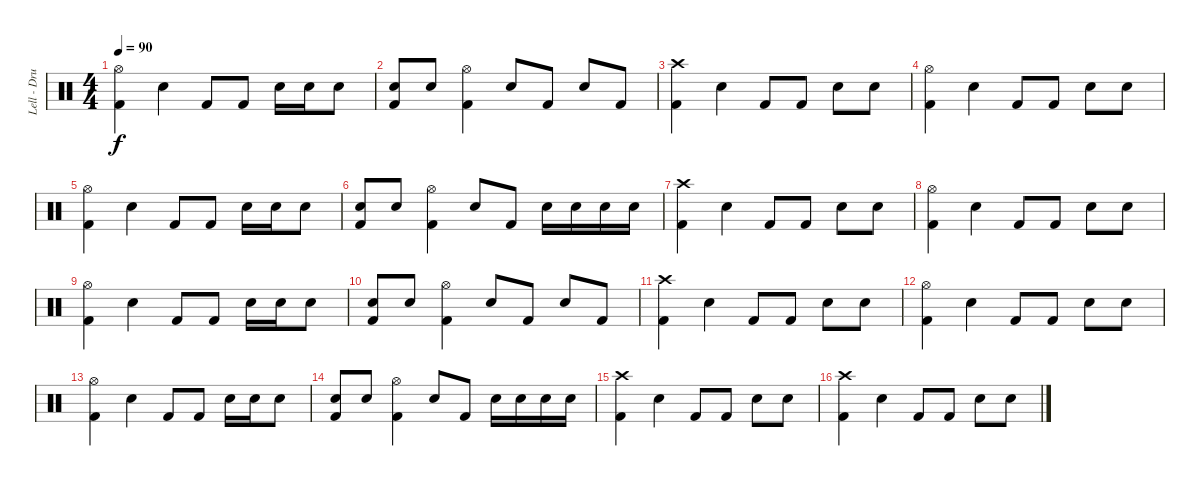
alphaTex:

\track ("Lell - Drums" "Lell - Dru") {instrument percussion}
\staff {score}
\articulation defaults
\ts (4 4)
\tempo 90
\clef neutral
\ks c
("Hi-Hat (open)" "Kick (hit) 2").4{dy f} "Snare (hit) 2".4 "Kick (hit) 2".8 "Kick (hit) 2".8 "Snare (hit) 2".16 "Snare (hit) 2".16 "Snare (hit) 2".8 |
("Snare (hit) 2" "Kick (hit) 2").8 "Snare (hit) 2".8 ("Hi-Hat (open)" "Kick (hit) 2").4 "Snare (hit) 2".8 "Kick (hit) 2".8 "Snare (hit) 2".8 "Kick (hit) 2".8 |
("Crash high (hit)" "Kick (hit) 2").4 "Snare (hit) 2".4 "Kick (hit) 2".8 "Kick (hit) 2".8 "Snare (hit) 2".8 "Snare (hit) 2".8 |
("Hi-Hat (open)" "Kick (hit) 2").4 "Snare (hit) 2".4 "Kick (hit) 2".8 "Kick (hit) 2".8 "Snare (hit) 2".8 "Snare (hit) 2".8 |
("Hi-Hat (open)" "Kick (hit) 2").4 "Snare (hit) 2".4 "Kick (hit) 2".8 "Kick (hit) 2".8 "Snare (hit) 2".16 "Snare (hit) 2".16 "Snare (hit) 2".8 |
("Snare (hit) 2" "Kick (hit) 2").8 "Snare (hit) 2".8 ("Hi-Hat (open)" "Kick (hit) 2").4 "Snare (hit) 2".8 "Kick (hit) 2".8 "Snare (hit) 2".16 "Snare (hit) 2".16 "Snare (hit) 2".16 "Snare (hit) 2".16 |
("Crash high (hit)" "Kick (hit) 2").4 "Snare (hit) 2".4 "Kick (hit) 2".8 "Kick (hit) 2".8 "Snare (hit) 2".8 "Snare (hit) 2".8 |
("Hi-Hat (open)" "Kick (hit) 2").4 "Snare (hit) 2".4 "Kick (hit) 2".8 "Kick (hit) 2".8 "Snare (hit) 2".8 "Snare (hit) 2".8 |
("Hi-Hat (open)" "Kick (hit) 2").4 "Snare (hit) 2".4 "Kick (hit) 2".8 "Kick (hit) 2".8 "Snare (hit) 2".16 "Snare (hit) 2".16 "Snare (hit) 2".8 |
("Snare (hit) 2" "Kick (hit) 2").8 "Snare (hit) 2".8 ("Hi-Hat (open)" "Kick (hit) 2").4 "Snare (hit) 2".8 "Kick (hit) 2".8 "Snare (hit) 2".8 "Kick (hit) 2".8 |
("Crash high (hit)" "Kick (hit) 2").4 "Snare (hit) 2".4 "Kick (hit) 2".8 "Kick (hit) 2".8 "Snare (hit) 2".8 "Snare (hit) 2".8 |
("Hi-Hat (open)" "Kick (hit) 2").4 "Snare (hit) 2".4 "Kick (hit) 2".8 "Kick (hit) 2".8 "Snare (hit) 2".8 "Snare (hit) 2".8 |
("Hi-Hat (open)" "Kick (hit) 2").4 "Snare (hit) 2".4 "Kick (hit) 2".8 "Kick (hit) 2".8 "Snare (hit) 2".16 "Snare (hit) 2".16 "Snare (hit) 2".8 |
("Snare (hit) 2" "Kick (hit) 2").8 "Snare (hit) 2".8 ("Hi-Hat (open)" "Kick (hit) 2").4 "Snare (hit) 2".8 "Kick (hit) 2".8 "Snare (hit) 2".16 "Snare (hit) 2".16 "Snare (hit) 2".16 "Snare (hit) 2".16 |
("Crash high (hit)" "Kick (hit) 2").4 "Snare (hit) 2".4 "Kick (hit) 2".8 "Kick (hit) 2".8 "Snare (hit) 2".8 "Snare (hit) 2".8 |
("Crash high (hit)" "Kick (hit) 2").4 "Snare (hit) 2".4 "Kick (hit) 2".8 "Kick (hit) 2".8 "Snare (hit) 2".8 "Snare (hit) 2".8
